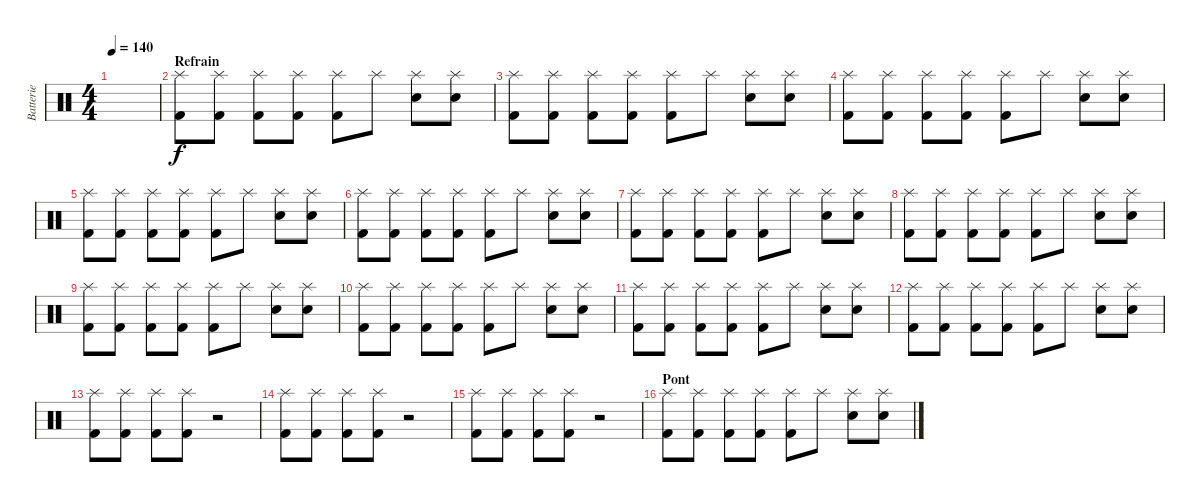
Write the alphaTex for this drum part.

\track ("Batterie" "Batterie") {instrument percussion}
\staff {score}
\articulation defaults
\ts (4 4)
\tempo 140
\clef neutral
\ks c
|
\section ("" "Refrain")
("Splash (hit)" "Kick (hit) 2").8{volume 11} ("Splash (hit)" "Kick (hit) 2").8 ("Splash (hit)" "Kick (hit) 2").8 ("Splash (hit)" "Kick (hit) 2").8 ("Splash (hit)" "Kick (hit) 2").8 "Splash (hit)".8 ("Splash (hit)" "Snare (hit) 2").8 ("Splash (hit)" "Snare (hit) 2").8 |
("Splash (hit)" "Kick (hit) 2").8 ("Splash (hit)" "Kick (hit) 2").8 ("Splash (hit)" "Kick (hit) 2").8 ("Splash (hit)" "Kick (hit) 2").8 ("Splash (hit)" "Kick (hit) 2").8 "Splash (hit)".8 ("Splash (hit)" "Snare (hit) 2").8 ("Splash (hit)" "Snare (hit) 2").8 |
("Splash (hit)" "Kick (hit) 2").8 ("Splash (hit)" "Kick (hit) 2").8 ("Splash (hit)" "Kick (hit) 2").8 ("Splash (hit)" "Kick (hit) 2").8 ("Splash (hit)" "Kick (hit) 2").8 "Splash (hit)".8 ("Splash (hit)" "Snare (hit) 2").8 ("Splash (hit)" "Snare (hit) 2").8 |
("Splash (hit)" "Kick (hit) 2").8 ("Splash (hit)" "Kick (hit) 2").8 ("Splash (hit)" "Kick (hit) 2").8 ("Splash (hit)" "Kick (hit) 2").8 ("Splash (hit)" "Kick (hit) 2").8 "Splash (hit)".8 ("Splash (hit)" "Snare (hit) 2").8 ("Splash (hit)" "Snare (hit) 2").8 |
("Splash (hit)" "Kick (hit) 2").8 ("Splash (hit)" "Kick (hit) 2").8 ("Splash (hit)" "Kick (hit) 2").8 ("Splash (hit)" "Kick (hit) 2").8 ("Splash (hit)" "Kick (hit) 2").8 "Splash (hit)".8 ("Splash (hit)" "Snare (hit) 2").8 ("Splash (hit)" "Snare (hit) 2").8 |
("Splash (hit)" "Kick (hit) 2").8 ("Splash (hit)" "Kick (hit) 2").8 ("Splash (hit)" "Kick (hit) 2").8 ("Splash (hit)" "Kick (hit) 2").8 ("Splash (hit)" "Kick (hit) 2").8 "Splash (hit)".8 ("Splash (hit)" "Snare (hit) 2").8 ("Splash (hit)" "Snare (hit) 2").8 |
("Splash (hit)" "Kick (hit) 2").8 ("Splash (hit)" "Kick (hit) 2").8 ("Splash (hit)" "Kick (hit) 2").8 ("Splash (hit)" "Kick (hit) 2").8 ("Splash (hit)" "Kick (hit) 2").8 "Splash (hit)".8 ("Splash (hit)" "Snare (hit) 2").8 ("Splash (hit)" "Snare (hit) 2").8 |
("Splash (hit)" "Kick (hit) 2").8 ("Splash (hit)" "Kick (hit) 2").8 ("Splash (hit)" "Kick (hit) 2").8 ("Splash (hit)" "Kick (hit) 2").8 ("Splash (hit)" "Kick (hit) 2").8 "Splash (hit)".8 ("Splash (hit)" "Snare (hit) 2").8 ("Splash (hit)" "Snare (hit) 2").8 |
("Splash (hit)" "Kick (hit) 2").8 ("Splash (hit)" "Kick (hit) 2").8 ("Splash (hit)" "Kick (hit) 2").8 ("Splash (hit)" "Kick (hit) 2").8 ("Splash (hit)" "Kick (hit) 2").8 "Splash (hit)".8 ("Splash (hit)" "Snare (hit) 2").8 ("Splash (hit)" "Snare (hit) 2").8 |
("Splash (hit)" "Kick (hit) 2").8 ("Splash (hit)" "Kick (hit) 2").8 ("Splash (hit)" "Kick (hit) 2").8 ("Splash (hit)" "Kick (hit) 2").8 ("Splash (hit)" "Kick (hit) 2").8 "Splash (hit)".8 ("Splash (hit)" "Snare (hit) 2").8 ("Splash (hit)" "Snare (hit) 2").8 |
("Splash (hit)" "Kick (hit) 2").8 ("Splash (hit)" "Kick (hit) 2").8 ("Splash (hit)" "Kick (hit) 2").8 ("Splash (hit)" "Kick (hit) 2").8 ("Splash (hit)" "Kick (hit) 2").8 "Splash (hit)".8 ("Splash (hit)" "Snare (hit) 2").8 ("Splash (hit)" "Snare (hit) 2").8 |
("Splash (hit)" "Kick (hit) 2").8 ("Splash (hit)" "Kick (hit) 2").8 ("Splash (hit)" "Kick (hit) 2").8 ("Splash (hit)" "Kick (hit) 2").8 r.2 |
("Splash (hit)" "Kick (hit) 2").8 ("Splash (hit)" "Kick (hit) 2").8 ("Splash (hit)" "Kick (hit) 2").8 ("Splash (hit)" "Kick (hit) 2").8 r.2 |
("Splash (hit)" "Kick (hit) 2").8 ("Splash (hit)" "Kick (hit) 2").8 ("Splash (hit)" "Kick (hit) 2").8 ("Splash (hit)" "Kick (hit) 2").8 r.2 |
\section ("" "Pont")
("Splash (hit)" "Kick (hit) 2").8 ("Splash (hit)" "Kick (hit) 2").8 ("Splash (hit)" "Kick (hit) 2").8 ("Splash (hit)" "Kick (hit) 2").8 ("Splash (hit)" "Kick (hit) 2").8 "Splash (hit)".8 ("Splash (hit)" "Snare (hit) 2").8 ("Splash (hit)" "Snare (hit) 2").8
